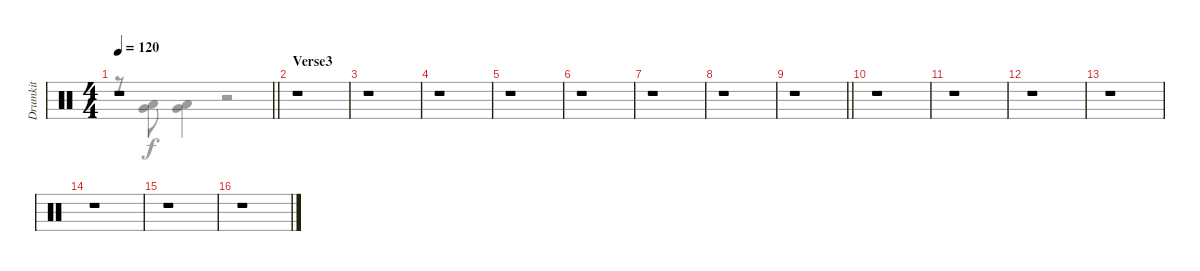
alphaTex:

\track ("Drumkit" "Drumkit") {instrument percussion}
\staff {score}
\articulation defaults
\voice
\ts (4 4)
\tempo 120
\clef neutral
\barLineRight lightlight
\ks c
r.1{dy f} |
\section ("" "Verse3")
r.1 |
r.1 |
r.1 |
r.1 |
r.1 |
r.1 |
r.1 |
\barLineRight lightlight
r.1 |
\section ("" "")
r.1 |
r.1 |
r.1 |
r.1 |
r.1 |
r.1 |
r.1
\voice
\clef neutral
\ottava regular
\simile none
\barLineRight lightlight
\ks c
r.8{dy f} ("Low Tom (hit)" "Very Low Tom (hit)").8 ("Low Tom (hit)" "Very Low Tom (hit)").4 r.2 |
|
|
|
|
|
|
|
\barLineRight lightlight
|
|
|
|
|
|
|
